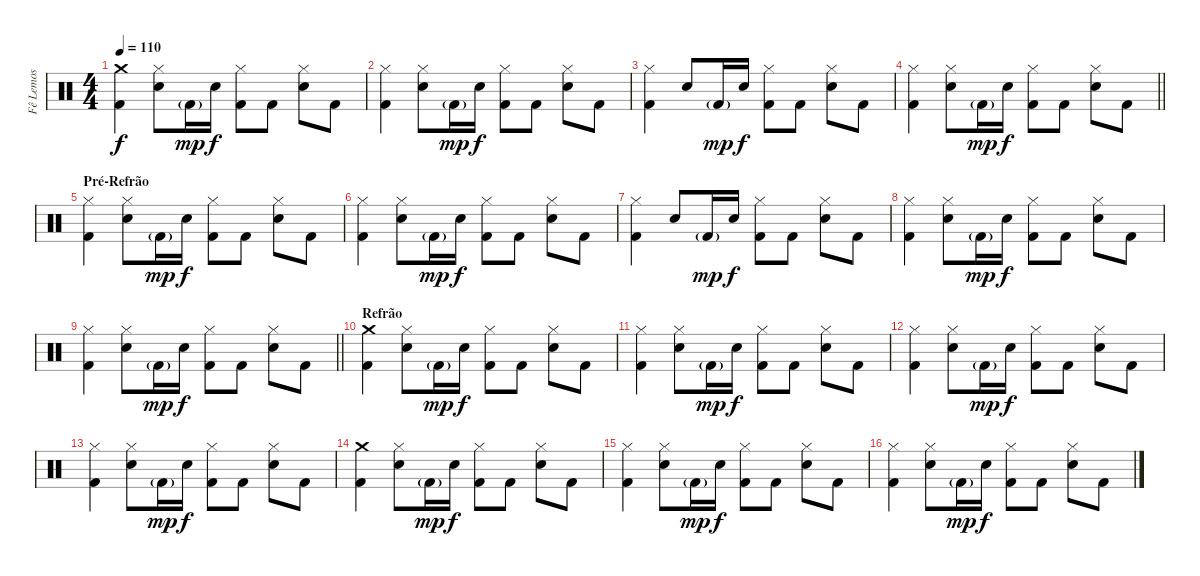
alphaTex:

\track ("Fê Lemos" "Fê Lemos") {instrument percussion}
\staff {score}
\articulation defaults
\ts (4 4)
\tempo 110
\clef neutral
\ks c
("Crash medium (hit)" "Kick (hit) 2").4{dy f} ("Hi-Hat (closed)" "Electric Snare (hit)").8 "Kick (hit) 2"{g}.16{dy mp} "Electric Snare (hit)".16{dy f} ("Hi-Hat (closed)" "Kick (hit) 2").8 "Kick (hit) 2".8 ("Hi-Hat (closed)" "Electric Snare (hit)").8 "Kick (hit) 2".8 |
("Hi-Hat (closed)" "Kick (hit) 2").4 ("Hi-Hat (closed)" "Electric Snare (hit)").8 "Kick (hit) 2"{g}.16{dy mp} "Electric Snare (hit)".16{dy f} ("Hi-Hat (closed)" "Kick (hit) 2").8 "Kick (hit) 2".8 ("Hi-Hat (closed)" "Electric Snare (hit)").8 "Kick (hit) 2".8 |
("Hi-Hat (closed)" "Kick (hit) 2").4 "Electric Snare (hit)".8 "Kick (hit) 2"{g}.16{dy mp} "Electric Snare (hit)".16{dy f} ("Hi-Hat (closed)" "Kick (hit) 2").8 "Kick (hit) 2".8 ("Hi-Hat (closed)" "Electric Snare (hit)").8 "Kick (hit) 2".8 |
\barLineRight lightlight
("Hi-Hat (closed)" "Kick (hit) 2").4 ("Hi-Hat (closed)" "Electric Snare (hit)").8 "Kick (hit) 2"{g}.16{dy mp} "Electric Snare (hit)".16{dy f} ("Hi-Hat (closed)" "Kick (hit) 2").8 "Kick (hit) 2".8 ("Hi-Hat (closed)" "Electric Snare (hit)").8 "Kick (hit) 2".8 |
\section ("" "Pré-Refrão")
("Hi-Hat (closed)" "Kick (hit) 2").4 ("Hi-Hat (closed)" "Electric Snare (hit)").8 "Kick (hit) 2"{g}.16{dy mp} "Electric Snare (hit)".16{dy f} ("Hi-Hat (closed)" "Kick (hit) 2").8 "Kick (hit) 2".8 ("Hi-Hat (closed)" "Electric Snare (hit)").8 "Kick (hit) 2".8 |
("Hi-Hat (closed)" "Kick (hit) 2").4 ("Hi-Hat (closed)" "Electric Snare (hit)").8 "Kick (hit) 2"{g}.16{dy mp} "Electric Snare (hit)".16{dy f} ("Hi-Hat (closed)" "Kick (hit) 2").8 "Kick (hit) 2".8 ("Hi-Hat (closed)" "Electric Snare (hit)").8 "Kick (hit) 2".8 |
("Hi-Hat (closed)" "Kick (hit) 2").4 "Electric Snare (hit)".8 "Kick (hit) 2"{g}.16{dy mp} "Electric Snare (hit)".16{dy f} ("Hi-Hat (closed)" "Kick (hit) 2").8 "Kick (hit) 2".8 ("Hi-Hat (closed)" "Electric Snare (hit)").8 "Kick (hit) 2".8 |
("Hi-Hat (closed)" "Kick (hit) 2").4 ("Hi-Hat (closed)" "Electric Snare (hit)").8 "Kick (hit) 2"{g}.16{dy mp} "Electric Snare (hit)".16{dy f} ("Hi-Hat (closed)" "Kick (hit) 2").8 "Kick (hit) 2".8 ("Hi-Hat (closed)" "Electric Snare (hit)").8 "Kick (hit) 2".8 |
\barLineRight lightlight
("Hi-Hat (closed)" "Kick (hit) 2").4 ("Hi-Hat (closed)" "Electric Snare (hit)").8 "Kick (hit) 2"{g}.16{dy mp} "Electric Snare (hit)".16{dy f} ("Hi-Hat (closed)" "Kick (hit) 2").8 "Kick (hit) 2".8 ("Hi-Hat (closed)" "Electric Snare (hit)").8 "Kick (hit) 2".8 |
\section ("" "Refrão")
("Crash medium (hit)" "Kick (hit) 2").4 ("Hi-Hat (closed)" "Electric Snare (hit)").8 "Kick (hit) 2"{g}.16{dy mp} "Electric Snare (hit)".16{dy f} ("Hi-Hat (closed)" "Kick (hit) 2").8 "Kick (hit) 2".8 ("Hi-Hat (closed)" "Electric Snare (hit)").8 "Kick (hit) 2".8 |
("Hi-Hat (closed)" "Kick (hit) 2").4 ("Hi-Hat (closed)" "Electric Snare (hit)").8 "Kick (hit) 2"{g}.16{dy mp} "Electric Snare (hit)".16{dy f} ("Hi-Hat (closed)" "Kick (hit) 2").8 "Kick (hit) 2".8 ("Hi-Hat (closed)" "Electric Snare (hit)").8 "Kick (hit) 2".8 |
("Hi-Hat (closed)" "Kick (hit) 2").4 ("Hi-Hat (closed)" "Electric Snare (hit)").8 "Kick (hit) 2"{g}.16{dy mp} "Electric Snare (hit)".16{dy f} ("Hi-Hat (closed)" "Kick (hit) 2").8 "Kick (hit) 2".8 ("Hi-Hat (closed)" "Electric Snare (hit)").8 "Kick (hit) 2".8 |
("Hi-Hat (closed)" "Kick (hit) 2").4 ("Hi-Hat (closed)" "Electric Snare (hit)").8 "Kick (hit) 2"{g}.16{dy mp} "Electric Snare (hit)".16{dy f} ("Hi-Hat (closed)" "Kick (hit) 2").8 "Kick (hit) 2".8 ("Hi-Hat (closed)" "Electric Snare (hit)").8 "Kick (hit) 2".8 |
("Crash medium (hit)" "Kick (hit) 2").4 ("Hi-Hat (closed)" "Electric Snare (hit)").8 "Kick (hit) 2"{g}.16{dy mp} "Electric Snare (hit)".16{dy f} ("Hi-Hat (closed)" "Kick (hit) 2").8 "Kick (hit) 2".8 ("Hi-Hat (closed)" "Electric Snare (hit)").8 "Kick (hit) 2".8 |
("Hi-Hat (closed)" "Kick (hit) 2").4 ("Hi-Hat (closed)" "Electric Snare (hit)").8 "Kick (hit) 2"{g}.16{dy mp} "Electric Snare (hit)".16{dy f} ("Hi-Hat (closed)" "Kick (hit) 2").8 "Kick (hit) 2".8 ("Hi-Hat (closed)" "Electric Snare (hit)").8 "Kick (hit) 2".8 |
("Hi-Hat (closed)" "Kick (hit) 2").4 ("Hi-Hat (closed)" "Electric Snare (hit)").8 "Kick (hit) 2"{g}.16{dy mp} "Electric Snare (hit)".16{dy f} ("Hi-Hat (closed)" "Kick (hit) 2").8 "Kick (hit) 2".8 ("Hi-Hat (closed)" "Electric Snare (hit)").8 "Kick (hit) 2".8
